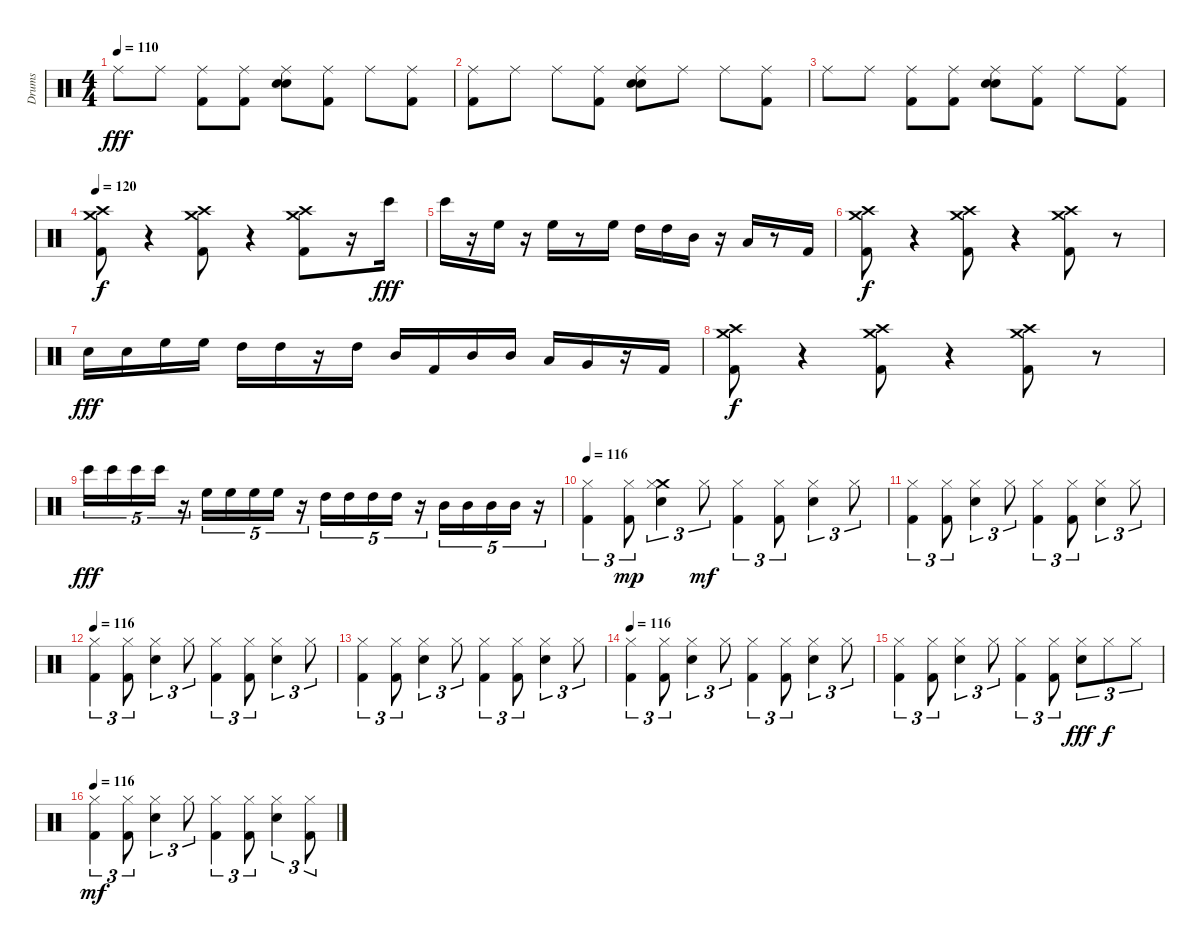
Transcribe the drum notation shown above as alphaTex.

\track ("Drums" "Drums") {instrument percussion}
\staff {score}
\articulation defaults
\ts (4 4)
\tempo 110
\clef neutral
\ks c "Ride (middle)".8{dy fff} "Ride (middle)".8
("Ride (middle)" "Kick (hit) 2").8 ("Ride (middle)" "Kick (hit) 2").8 ("Ride (middle)" "Snare (hit) 2" "Electric Snare (hit)").8 ("Ride (middle)" "Kick (hit) 2").8 "Ride (middle)".8 ("Ride (middle)" "Kick (hit) 2").8 |
("Kick (hit) 2" "Ride (middle)").8 "Ride (middle)".8 "Ride (middle)".8 ("Kick (hit) 2" "Ride (middle)").8 ("Ride (middle)" "Snare (hit) 2" "Electric Snare (hit)").8 "Ride (middle)".8 "Ride (middle)".8 ("Ride (middle)" "Kick (hit) 2").8 |
"Ride (middle)".8 "Ride (middle)".8 ("Ride (middle)" "Kick (hit) 2").8 ("Ride (middle)" "Kick (hit) 2").8 ("Ride (middle)" "Snare (hit) 2" "Electric Snare (hit)").8 ("Ride (middle)" "Kick (hit) 2").8 "Ride (middle)".8 ("Kick (hit) 2" "Ride (middle)").8 |
\tempo 120
("Crash high (hit)" "Kick (hit) 2" "Crash medium (hit)").8{dy f} r.4 ("Crash high (hit)" "Kick (hit) 2" "Crash medium (hit)").8 r.4 ("Crash high (hit)" "Kick (hit) 2" "Crash medium (hit)").8 r.16 "Bongo High (hit)".16{dy fff} |
"Bongo High (hit)".16 r.16 "High Floor Tom (hit)".16 r.16 "High Floor Tom (hit)".16 r.8 "High Floor Tom (hit)".16 "High Tom (hit)".16 "High Tom (hit)".16 "Mid Tom (hit)".16 r.16 "Low Tom (hit)".16 r.8 "Kick (hit) 2".16 |
("Crash medium (hit)" "Crash high (hit)" "Kick (hit) 2").8{dy f} r.4 ("Crash medium (hit)" "Crash high (hit)" "Kick (hit) 2").8 r.4 ("Crash medium (hit)" "Crash high (hit)" "Kick (hit) 2").8 r.8 |
"Electric Snare (hit)".16{dy fff} "Electric Snare (hit)".16 "High Floor Tom (hit)".16 "High Floor Tom (hit)".16 "High Tom (hit)".16 "High Tom (hit)".16 r.16 "High Tom (hit)".16 "Mid Tom (hit)".16 "Kick (hit) 2".16 "Mid Tom (hit)".16 "Mid Tom (hit)".16 "Low Tom (hit)".16 "Very Low Tom (hit)".16 r.16 "Kick (hit) 2".16 |
("Crash medium (hit)" "Crash high (hit)" "Kick (hit) 2").8{dy f} r.4 ("Crash medium (hit)" "Crash high (hit)" "Kick (hit) 2").8 r.4 ("Crash medium (hit)" "Crash high (hit)" "Kick (hit) 2").8 r.8 |
"Bongo High (hit)".16{tu (5 4) dy fff} "Bongo High (hit)".16{tu (5 4)} "Bongo High (hit)".16{tu (5 4)} "Bongo High (hit)".16{tu (5 4)} r.16{tu (5 4)} "High Floor Tom (hit)".16{tu (5 4)} "High Floor Tom (hit)".16{tu (5 4)} "High Floor Tom (hit)".16{tu (5 4)} "High Floor Tom (hit)".16{tu (5 4)} r.16{tu (5 4)} "High Tom (hit)".16{tu (5 4)} "High Tom (hit)".16{tu (5 4)} "High Tom (hit)".16{tu (5 4)} "High Tom (hit)".16{tu (5 4)} r.16{tu (5 4)} "Mid Tom (hit)".16{tu (5 4)} "Mid Tom (hit)".16{tu (5 4)} "Mid Tom (hit)".16{tu (5 4)} "Mid Tom (hit)".16{tu (5 4)} r.16{tu (5 4)} |
\tempo 116
("Hi-Hat (closed)" "Kick (hit) 2").4{tu (3 2)} ("Kick (hit) 2" "Hi-Hat (closed)").8{tu (3 2) dy mp} ("Snare (hit) 2" "Crash medium (hit)" "Hi-Hat (closed)").4{tu (3 2)} "Hi-Hat (closed)".8{tu (3 2) dy mf} ("Kick (hit) 2" "Hi-Hat (closed)").4{tu (3 2)} ("Kick (hit) 2" "Hi-Hat (closed)").8{tu (3 2)} ("Snare (hit) 2" "Hi-Hat (closed)").4{tu (3 2)} "Hi-Hat (closed)".8{tu (3 2)} |
("Kick (hit) 2" "Hi-Hat (closed)").4{tu (3 2)} ("Kick (hit) 2" "Hi-Hat (closed)").8{tu (3 2)} ("Snare (hit) 2" "Hi-Hat (closed)").4{tu (3 2)} "Hi-Hat (closed)".8{tu (3 2)} ("Kick (hit) 2" "Hi-Hat (closed)").4{tu (3 2)} ("Kick (hit) 2" "Hi-Hat (closed)").8{tu (3 2)} ("Snare (hit) 2" "Hi-Hat (closed)").4{tu (3 2)} "Hi-Hat (closed)".8{tu (3 2)} |
\tempo 116
("Kick (hit) 2" "Hi-Hat (closed)").4{tu (3 2)} ("Kick (hit) 2" "Hi-Hat (closed)").8{tu (3 2)} ("Snare (hit) 2" "Hi-Hat (closed)").4{tu (3 2)} "Hi-Hat (closed)".8{tu (3 2)} ("Kick (hit) 2" "Hi-Hat (closed)").4{tu (3 2)} ("Kick (hit) 2" "Hi-Hat (closed)").8{tu (3 2)} ("Snare (hit) 2" "Hi-Hat (closed)").4{tu (3 2)} "Hi-Hat (closed)".8{tu (3 2)} |
("Kick (hit) 2" "Hi-Hat (closed)").4{tu (3 2)} ("Kick (hit) 2" "Hi-Hat (closed)").8{tu (3 2)} ("Snare (hit) 2" "Hi-Hat (closed)").4{tu (3 2)} "Hi-Hat (closed)".8{tu (3 2)} ("Kick (hit) 2" "Hi-Hat (closed)").4{tu (3 2)} ("Kick (hit) 2" "Hi-Hat (closed)").8{tu (3 2)} ("Snare (hit) 2" "Hi-Hat (closed)").4{tu (3 2)} "Hi-Hat (closed)".8{tu (3 2)} |
\tempo 116
("Kick (hit) 2" "Hi-Hat (closed)").4{tu (3 2)} ("Kick (hit) 2" "Hi-Hat (closed)").8{tu (3 2)} ("Snare (hit) 2" "Hi-Hat (closed)").4{tu (3 2)} "Hi-Hat (closed)".8{tu (3 2)} ("Kick (hit) 2" "Hi-Hat (closed)").4{tu (3 2)} ("Kick (hit) 2" "Hi-Hat (closed)").8{tu (3 2)} ("Snare (hit) 2" "Hi-Hat (closed)").4{tu (3 2)} "Hi-Hat (closed)".8{tu (3 2)} |
("Kick (hit) 2" "Hi-Hat (closed)").4{tu (3 2)} ("Kick (hit) 2" "Hi-Hat (closed)").8{tu (3 2)} ("Snare (hit) 2" "Hi-Hat (closed)").4{tu (3 2)} "Hi-Hat (closed)".8{tu (3 2)} ("Kick (hit) 2" "Hi-Hat (closed)").4{tu (3 2)} ("Kick (hit) 2" "Hi-Hat (closed)").8{tu (3 2)} ("Snare (hit) 2" "Hi-Hat (closed)").8{tu (3 2) dy fff} "Hi-Hat (closed)".8{tu (3 2) dy f} "Hi-Hat (closed)".8{tu (3 2)} |
\tempo 116
("Kick (hit) 2" "Hi-Hat (closed)").4{tu (3 2) dy mf} ("Kick (hit) 2" "Hi-Hat (closed)").8{tu (3 2)} ("Snare (hit) 2" "Hi-Hat (closed)").4{tu (3 2)} "Hi-Hat (closed)".8{tu (3 2)} ("Kick (hit) 2" "Hi-Hat (closed)").4{tu (3 2)} ("Kick (hit) 2" "Hi-Hat (closed)").8{tu (3 2)} ("Snare (hit) 2" "Hi-Hat (closed)").4{tu (3 2)} ("Hi-Hat (closed)" "Kick (hit) 2").8{tu (3 2)}
